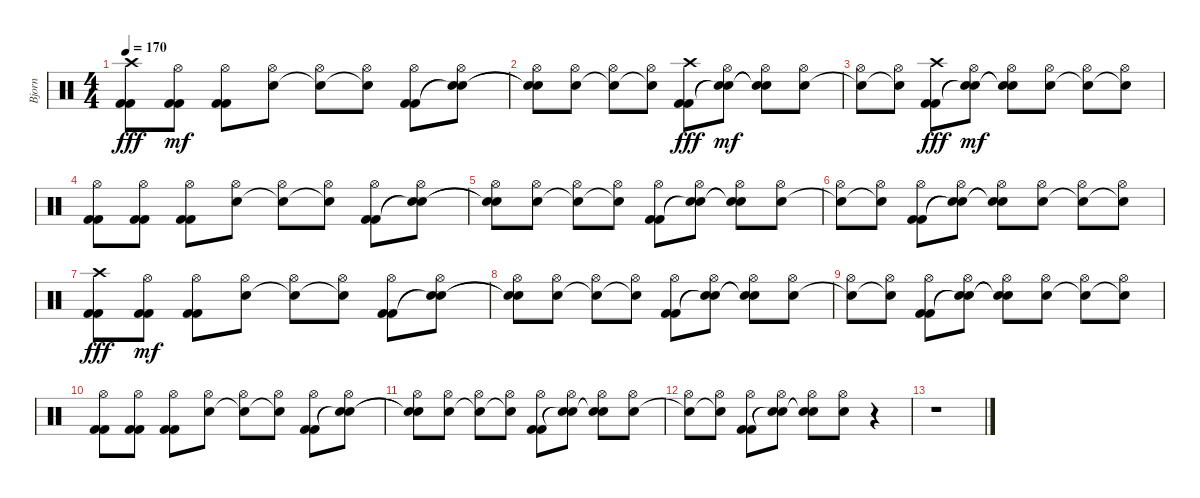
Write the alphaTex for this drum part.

\track ("Bjorn" "Bjorn") {instrument percussion}
\staff {score}
\articulation defaults
\ts (4 4)
\tempo 170
\clef neutral
\ks c
("Kick (hit) 2" "Kick (hit) 2" "Crash high (hit)").8{dy fff} ("Kick (hit) 2" "Kick (hit) 2" "Hi-Hat (open)").8{dy mf} ("Kick (hit) 2" "Kick (hit) 2" "Hi-Hat (open)").8 ("Snare (hit) 2" "Hi-Hat (open)").8 ("Snare (hit)"{t} "Hi-Hat (open)").8 ("Snare (hit)"{t} "Hi-Hat (open)").8 ("Kick (hit) 2" "Kick (hit) 2" "Hi-Hat (open)").8 ("Snare (hit)"{t} "Snare (hit)"{t} "Hi-Hat (open)").8 |
("Snare (hit)"{t} "Snare (hit)"{t} "Hi-Hat (open)").8 ("Snare (hit) 2" "Hi-Hat (open)").8 ("Snare (hit)"{t} "Hi-Hat (open)").8 ("Snare (hit)"{t} "Hi-Hat (open)").8 ("Kick (hit) 2" "Kick (hit) 2" "Crash high (hit)").8{dy fff} ("Snare (hit)"{t} "Snare (hit)"{t} "Hi-Hat (open)").8{dy mf} ("Snare (hit)"{t} "Snare (hit)"{t} "Hi-Hat (open)").8 ("Snare (hit) 2" "Hi-Hat (open)").8 |
("Snare (hit)"{t} "Hi-Hat (open)").8 ("Snare (hit)"{t} "Hi-Hat (open)").8 ("Kick (hit) 2" "Kick (hit) 2" "Crash high (hit)").8{dy fff} ("Snare (hit)"{t} "Snare (hit)"{t} "Hi-Hat (open)").8{dy mf} ("Snare (hit)"{t} "Snare (hit)"{t} "Hi-Hat (open)").8 ("Snare (hit) 2" "Hi-Hat (open)").8 ("Snare (hit)"{t} "Hi-Hat (open)").8 ("Snare (hit)"{t} "Hi-Hat (open)").8 |
("Kick (hit) 2" "Kick (hit) 2" "Hi-Hat (open)").8 ("Kick (hit) 2" "Kick (hit) 2" "Hi-Hat (open)").8 ("Kick (hit) 2" "Kick (hit) 2" "Hi-Hat (open)").8 ("Snare (hit) 2" "Hi-Hat (open)").8 ("Snare (hit)"{t} "Hi-Hat (open)").8 ("Snare (hit)"{t} "Hi-Hat (open)").8 ("Kick (hit) 2" "Kick (hit) 2" "Hi-Hat (open)").8 ("Snare (hit)"{t} "Snare (hit)"{t} "Hi-Hat (open)").8 |
("Snare (hit)"{t} "Snare (hit)"{t} "Hi-Hat (open)").8 ("Snare (hit) 2" "Hi-Hat (open)").8 ("Snare (hit)"{t} "Hi-Hat (open)").8 ("Snare (hit)"{t} "Hi-Hat (open)").8 ("Kick (hit) 2" "Kick (hit) 2" "Hi-Hat (open)").8 ("Snare (hit)"{t} "Snare (hit)"{t} "Hi-Hat (open)").8 ("Snare (hit)"{t} "Snare (hit)"{t} "Hi-Hat (open)").8 ("Snare (hit) 2" "Hi-Hat (open)").8 |
("Snare (hit)"{t} "Hi-Hat (open)").8 ("Snare (hit)"{t} "Hi-Hat (open)").8 ("Kick (hit) 2" "Kick (hit) 2" "Hi-Hat (open)").8 ("Snare (hit)"{t} "Snare (hit)"{t} "Hi-Hat (open)").8 ("Snare (hit)"{t} "Snare (hit)"{t} "Hi-Hat (open)").8 ("Snare (hit) 2" "Hi-Hat (open)").8 ("Snare (hit)"{t} "Hi-Hat (open)").8 ("Snare (hit)"{t} "Hi-Hat (open)").8 |
("Kick (hit) 2" "Kick (hit) 2" "Crash high (hit)").8{dy fff} ("Kick (hit) 2" "Kick (hit) 2" "Hi-Hat (open)").8{dy mf} ("Kick (hit) 2" "Kick (hit) 2" "Hi-Hat (open)").8 ("Snare (hit) 2" "Hi-Hat (open)").8 ("Snare (hit)"{t} "Hi-Hat (open)").8 ("Snare (hit)"{t} "Hi-Hat (open)").8 ("Kick (hit) 2" "Kick (hit) 2" "Hi-Hat (open)").8 ("Snare (hit)"{t} "Snare (hit)"{t} "Hi-Hat (open)").8 |
("Snare (hit)"{t} "Snare (hit)"{t} "Hi-Hat (open)").8 ("Snare (hit) 2" "Hi-Hat (open)").8 ("Snare (hit)"{t} "Hi-Hat (open)").8 ("Snare (hit)"{t} "Hi-Hat (open)").8 ("Kick (hit) 2" "Kick (hit) 2" "Hi-Hat (open)").8 ("Snare (hit)"{t} "Snare (hit)"{t} "Hi-Hat (open)").8 ("Snare (hit)"{t} "Snare (hit)"{t} "Hi-Hat (open)").8 ("Snare (hit) 2" "Hi-Hat (open)").8 |
("Snare (hit)"{t} "Hi-Hat (open)").8 ("Snare (hit)"{t} "Hi-Hat (open)").8 ("Kick (hit) 2" "Kick (hit) 2" "Hi-Hat (open)").8 ("Snare (hit)"{t} "Snare (hit)"{t} "Hi-Hat (open)").8 ("Snare (hit)"{t} "Snare (hit)"{t} "Hi-Hat (open)").8 ("Snare (hit) 2" "Hi-Hat (open)").8 ("Snare (hit)"{t} "Hi-Hat (open)").8 ("Snare (hit)"{t} "Hi-Hat (open)").8 |
("Kick (hit) 2" "Kick (hit) 2" "Hi-Hat (open)").8 ("Kick (hit) 2" "Kick (hit) 2" "Hi-Hat (open)").8 ("Kick (hit) 2" "Kick (hit) 2" "Hi-Hat (open)").8 ("Snare (hit) 2" "Hi-Hat (open)").8 ("Snare (hit)"{t} "Hi-Hat (open)").8 ("Snare (hit)"{t} "Hi-Hat (open)").8 ("Kick (hit) 2" "Kick (hit) 2" "Hi-Hat (open)").8 ("Snare (hit)"{t} "Snare (hit)"{t} "Hi-Hat (open)").8 |
("Snare (hit)"{t} "Snare (hit)"{t} "Hi-Hat (open)").8 ("Snare (hit) 2" "Hi-Hat (open)").8 ("Snare (hit)"{t} "Hi-Hat (open)").8 ("Snare (hit)"{t} "Hi-Hat (open)").8 ("Kick (hit) 2" "Kick (hit) 2" "Hi-Hat (open)").8 ("Snare (hit)"{t} "Snare (hit)"{t} "Hi-Hat (open)").8 ("Snare (hit)"{t} "Snare (hit)"{t} "Hi-Hat (open)").8 ("Snare (hit) 2" "Hi-Hat (open)").8 |
("Snare (hit)"{t} "Hi-Hat (open)").8 ("Snare (hit)"{t} "Hi-Hat (open)").8 ("Kick (hit) 2" "Kick (hit) 2" "Hi-Hat (open)").8 ("Snare (hit)"{t} "Snare (hit)"{t} "Hi-Hat (open)").8 ("Snare (hit)"{t} "Snare (hit)"{t} "Hi-Hat (open)").8 ("Snare (hit) 2" "Hi-Hat (open)").8 r.4 |
r.1
